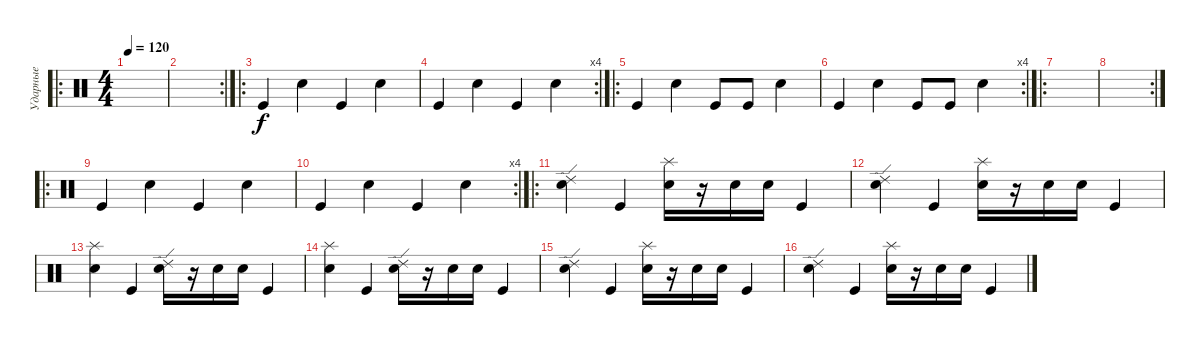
\track ("Ударные" "Ударные") {instrument percussion}
\staff {score}
\articulation defaults
\ro
\ts (4 4)
\tempo 120
\clef neutral
\ks c
|
\rc 2
|
\ro "Kick (hit)".4 "Electric Snare (hit)".4 "Kick (hit)".4 "Electric Snare (hit)".4
|
\rc 4 "Kick (hit)".4 "Electric Snare (hit)".4 "Kick (hit)".4 "Electric Snare (hit)".4
|
\ro "Kick (hit)".4 "Electric Snare (hit)".4 "Kick (hit)".8 "Kick (hit)".8 "Electric Snare (hit)".4
|
\rc 4 "Kick (hit)".4 "Electric Snare (hit)".4 "Kick (hit)".8 "Kick (hit)".8 "Electric Snare (hit)".4
|
\ro
|
\rc 2
|
\ro "Kick (hit)".4 "Electric Snare (hit)".4 "Kick (hit)".4 "Electric Snare (hit)".4
|
\rc 4 "Kick (hit)".4 "Electric Snare (hit)".4 "Kick (hit)".4 "Electric Snare (hit)".4
|
\ro
("Electric Snare (hit)" "Ride (edge) 2").4 "Kick (hit)".4 ("Electric Snare (hit)" "Splash (hit)").16 r.16 "Electric Snare (hit)".16 "Electric Snare (hit)".16 "Kick (hit)".4 |
("Electric Snare (hit)" "Ride (edge) 2").4 "Kick (hit)".4 ("Electric Snare (hit)" "Splash (hit)").16 r.16 "Electric Snare (hit)".16 "Electric Snare (hit)".16 "Kick (hit)".4 |
("Electric Snare (hit)" "Splash (hit)").4 "Kick (hit)".4 ("Electric Snare (hit)" "Ride (edge) 2").16 r.16 "Electric Snare (hit)".16 "Electric Snare (hit)".16 "Kick (hit)".4 |
("Electric Snare (hit)" "Splash (hit)").4 "Kick (hit)".4 ("Electric Snare (hit)" "Ride (edge) 2").16 r.16 "Electric Snare (hit)".16 "Electric Snare (hit)".16 "Kick (hit)".4 |
("Electric Snare (hit)" "Ride (edge) 2").4 "Kick (hit)".4 ("Electric Snare (hit)" "Splash (hit)").16 r.16 "Electric Snare (hit)".16 "Electric Snare (hit)".16 "Kick (hit)".4 |
("Electric Snare (hit)" "Ride (edge) 2").4 "Kick (hit)".4 ("Electric Snare (hit)" "Splash (hit)").16 r.16 "Electric Snare (hit)".16 "Electric Snare (hit)".16 "Kick (hit)".4
